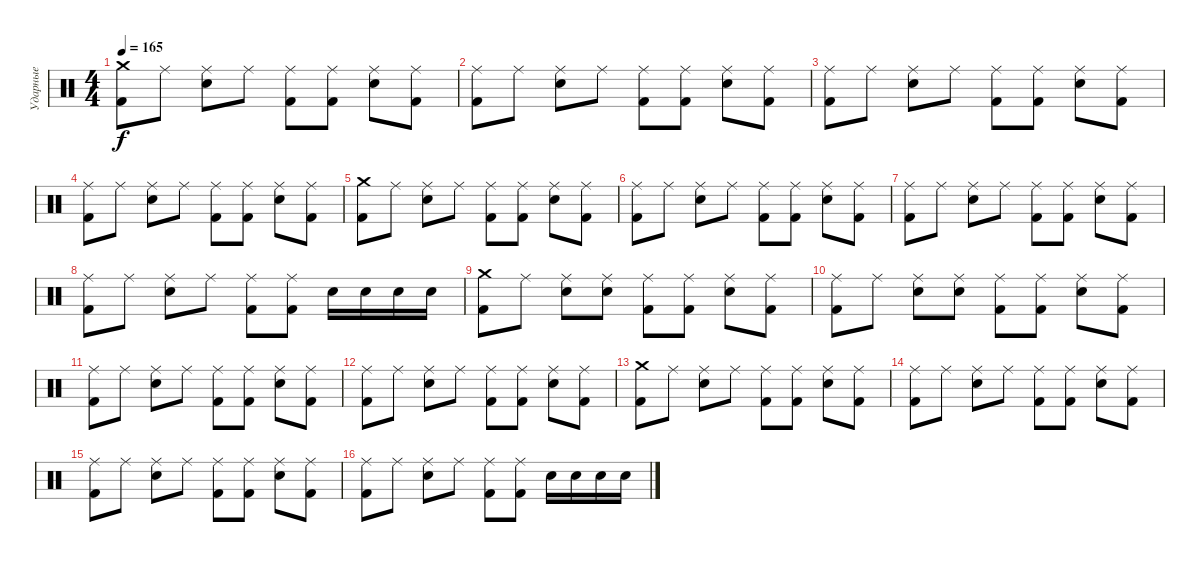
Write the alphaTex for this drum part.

\track ("Ударные" "Ударные") {instrument percussion}
\staff {score}
\articulation defaults
\ts (4 4)
\tempo 165
\clef neutral
\ks c
("Crash medium (hit)" "Kick (hit) 2").8{dy f} "Ride (middle)".8 ("Ride (middle)" "Electric Snare (hit)").8 "Ride (middle)".8 ("Ride (middle)" "Kick (hit) 2").8 ("Ride (middle)" "Kick (hit) 2").8 ("Ride (middle)" "Electric Snare (hit)").8 ("Ride (middle)" "Kick (hit) 2").8 |
("Ride (middle)" "Kick (hit) 2").8 "Ride (middle)".8 ("Ride (middle)" "Electric Snare (hit)").8 "Ride (middle)".8 ("Ride (middle)" "Kick (hit) 2").8 ("Ride (middle)" "Kick (hit) 2").8 ("Ride (middle)" "Electric Snare (hit)").8 ("Ride (middle)" "Kick (hit) 2").8 |
("Ride (middle)" "Kick (hit) 2").8 "Ride (middle)".8 ("Ride (middle)" "Electric Snare (hit)").8 "Ride (middle)".8 ("Ride (middle)" "Kick (hit) 2").8 ("Ride (middle)" "Kick (hit) 2").8 ("Ride (middle)" "Electric Snare (hit)").8 ("Ride (middle)" "Kick (hit) 2").8 |
("Ride (middle)" "Kick (hit) 2").8 "Ride (middle)".8 ("Ride (middle)" "Electric Snare (hit)").8 "Ride (middle)".8 ("Ride (middle)" "Kick (hit) 2").8 ("Ride (middle)" "Kick (hit) 2").8 ("Ride (middle)" "Electric Snare (hit)").8 ("Ride (middle)" "Kick (hit) 2").8 |
("Crash medium (hit)" "Kick (hit) 2").8 "Ride (middle)".8 ("Ride (middle)" "Electric Snare (hit)").8 "Ride (middle)".8 ("Ride (middle)" "Kick (hit) 2").8 ("Ride (middle)" "Kick (hit) 2").8 ("Ride (middle)" "Electric Snare (hit)").8 ("Ride (middle)" "Kick (hit) 2").8 |
("Ride (middle)" "Kick (hit) 2").8 "Ride (middle)".8 ("Ride (middle)" "Electric Snare (hit)").8 "Ride (middle)".8 ("Ride (middle)" "Kick (hit) 2").8 ("Ride (middle)" "Kick (hit) 2").8 ("Ride (middle)" "Electric Snare (hit)").8 ("Ride (middle)" "Kick (hit) 2").8 |
("Ride (middle)" "Kick (hit) 2").8 "Ride (middle)".8 ("Ride (middle)" "Electric Snare (hit)").8 "Ride (middle)".8 ("Ride (middle)" "Kick (hit) 2").8 ("Ride (middle)" "Kick (hit) 2").8 ("Ride (middle)" "Electric Snare (hit)").8 ("Ride (middle)" "Kick (hit) 2").8 |
("Ride (middle)" "Kick (hit) 2").8 "Ride (middle)".8 ("Ride (middle)" "Electric Snare (hit)").8 "Ride (middle)".8 ("Ride (middle)" "Kick (hit) 2").8 ("Ride (middle)" "Kick (hit) 2").8 "Electric Snare (hit)".16 "Electric Snare (hit)".16 "Electric Snare (hit)".16 "Electric Snare (hit)".16 |
("Crash medium (hit)" "Kick (hit) 2").8 "Ride (middle)".8 ("Ride (middle)" "Electric Snare (hit)").8 ("Ride (middle)" "Electric Snare (hit)").8 ("Ride (middle)" "Kick (hit) 2").8 ("Ride (middle)" "Kick (hit) 2").8 ("Ride (middle)" "Electric Snare (hit)").8 ("Ride (middle)" "Kick (hit) 2").8 |
("Ride (middle)" "Kick (hit) 2").8 "Ride (middle)".8 ("Ride (middle)" "Electric Snare (hit)").8 ("Ride (middle)" "Electric Snare (hit)").8 ("Ride (middle)" "Kick (hit) 2").8 ("Ride (middle)" "Kick (hit) 2").8 ("Ride (middle)" "Electric Snare (hit)").8 ("Ride (middle)" "Kick (hit) 2").8 |
("Ride (middle)" "Kick (hit) 2").8 "Ride (middle)".8 ("Ride (middle)" "Electric Snare (hit)").8 "Ride (middle)".8 ("Ride (middle)" "Kick (hit) 2").8 ("Ride (middle)" "Kick (hit) 2").8 ("Ride (middle)" "Electric Snare (hit)").8 ("Ride (middle)" "Kick (hit) 2").8 |
("Ride (middle)" "Kick (hit) 2").8 "Ride (middle)".8 ("Ride (middle)" "Electric Snare (hit)").8 "Ride (middle)".8 ("Ride (middle)" "Kick (hit) 2").8 ("Ride (middle)" "Kick (hit) 2").8 ("Ride (middle)" "Electric Snare (hit)").8 ("Ride (middle)" "Kick (hit) 2").8 |
("Crash medium (hit)" "Kick (hit) 2").8 "Ride (middle)".8 ("Ride (middle)" "Electric Snare (hit)").8 "Ride (middle)".8 ("Ride (middle)" "Kick (hit) 2").8 ("Ride (middle)" "Kick (hit) 2").8 ("Ride (middle)" "Electric Snare (hit)").8 ("Ride (middle)" "Kick (hit) 2").8 |
("Ride (middle)" "Kick (hit) 2").8 "Ride (middle)".8 ("Ride (middle)" "Electric Snare (hit)").8 "Ride (middle)".8 ("Ride (middle)" "Kick (hit) 2").8 ("Ride (middle)" "Kick (hit) 2").8 ("Ride (middle)" "Electric Snare (hit)").8 ("Ride (middle)" "Kick (hit) 2").8 |
("Ride (middle)" "Kick (hit) 2").8 "Ride (middle)".8 ("Ride (middle)" "Electric Snare (hit)").8 "Ride (middle)".8 ("Ride (middle)" "Kick (hit) 2").8 ("Ride (middle)" "Kick (hit) 2").8 ("Ride (middle)" "Electric Snare (hit)").8 ("Ride (middle)" "Kick (hit) 2").8 |
("Ride (middle)" "Kick (hit) 2").8 "Ride (middle)".8 ("Ride (middle)" "Electric Snare (hit)").8 "Ride (middle)".8 ("Ride (middle)" "Kick (hit) 2").8 ("Ride (middle)" "Kick (hit) 2").8 "Electric Snare (hit)".16 "Electric Snare (hit)".16 "Electric Snare (hit)".16 "Electric Snare (hit)".16
